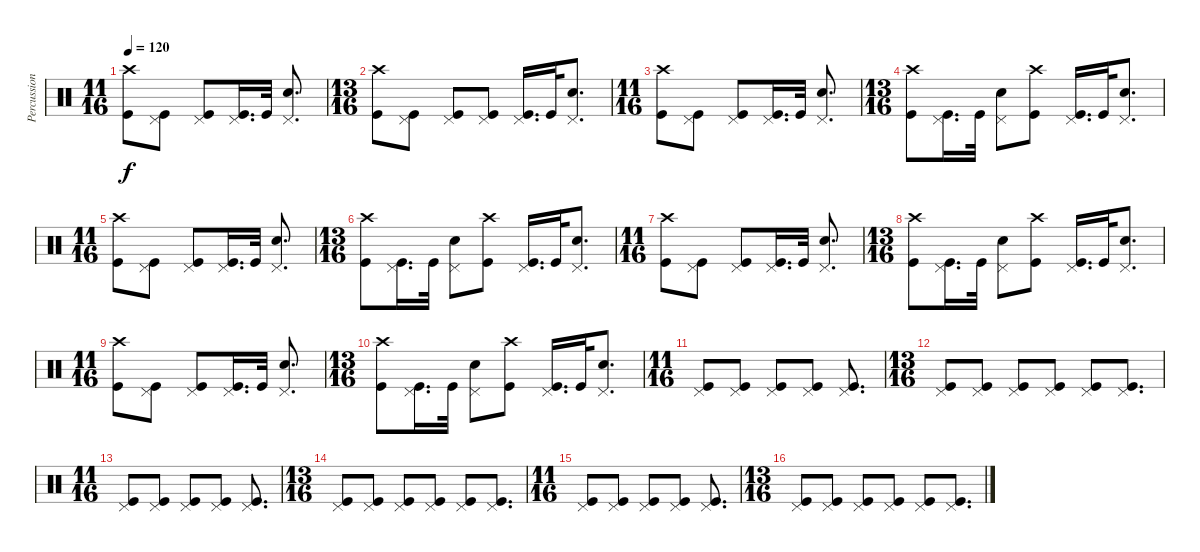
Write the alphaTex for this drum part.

\track ("Percussion" "Percussion") {instrument percussion}
\staff {score}
\articulation defaults
\ts (11 16)
\tempo 120
\clef neutral
\ks c
("Crash high (hit)" "Kick (hit)").8{dy f} ("Pedal Hi-Hat (hit)" "Kick (hit)").8 ("Pedal Hi-Hat (hit)" "Kick (hit)").8 ("Pedal Hi-Hat (hit)" "Kick (hit)").16{d} "Kick (hit)".32 ("Pedal Hi-Hat (hit)" "Snare (hit) 2").8{d} |
\ts (13 16)
("Crash high (hit)" "Kick (hit)").8 ("Pedal Hi-Hat (hit)" "Kick (hit)").8 ("Pedal Hi-Hat (hit)" "Kick (hit)").8 ("Pedal Hi-Hat (hit)" "Kick (hit)").8 ("Pedal Hi-Hat (hit)" "Kick (hit)").16{d} "Kick (hit)".32 ("Pedal Hi-Hat (hit)" "Snare (hit) 2").8{d} |
\ts (11 16)
("Crash high (hit)" "Kick (hit)").8 ("Pedal Hi-Hat (hit)" "Kick (hit)").8 ("Pedal Hi-Hat (hit)" "Kick (hit)").8 ("Pedal Hi-Hat (hit)" "Kick (hit)").16{d} "Kick (hit)".32 ("Pedal Hi-Hat (hit)" "Snare (hit) 2").8{d} |
\ts (13 16)
("Crash high (hit)" "Kick (hit)").8 ("Pedal Hi-Hat (hit)" "Kick (hit)").16{d} "Kick (hit)".32 ("Pedal Hi-Hat (hit)" "Snare (hit) 2").8 ("Crash high (hit)" "Kick (hit)").8 ("Pedal Hi-Hat (hit)" "Kick (hit)").16{d} "Kick (hit)".32 ("Pedal Hi-Hat (hit)" "Snare (hit) 2").8{d} |
\ts (11 16)
("Crash high (hit)" "Kick (hit)").8 ("Pedal Hi-Hat (hit)" "Kick (hit)").8 ("Pedal Hi-Hat (hit)" "Kick (hit)").8 ("Pedal Hi-Hat (hit)" "Kick (hit)").16{d} "Kick (hit)".32 ("Pedal Hi-Hat (hit)" "Snare (hit) 2").8{d} |
\ts (13 16)
("Crash high (hit)" "Kick (hit)").8 ("Pedal Hi-Hat (hit)" "Kick (hit)").16{d} "Kick (hit)".32 ("Pedal Hi-Hat (hit)" "Snare (hit) 2").8 ("Crash high (hit)" "Kick (hit)").8 ("Pedal Hi-Hat (hit)" "Kick (hit)").16{d} "Kick (hit)".32 ("Pedal Hi-Hat (hit)" "Snare (hit) 2").8{d} |
\ts (11 16)
("Crash high (hit)" "Kick (hit)").8 ("Pedal Hi-Hat (hit)" "Kick (hit)").8 ("Pedal Hi-Hat (hit)" "Kick (hit)").8 ("Pedal Hi-Hat (hit)" "Kick (hit)").16{d} "Kick (hit)".32 ("Pedal Hi-Hat (hit)" "Snare (hit) 2").8{d} |
\ts (13 16)
("Crash high (hit)" "Kick (hit)").8 ("Pedal Hi-Hat (hit)" "Kick (hit)").16{d} "Kick (hit)".32 ("Pedal Hi-Hat (hit)" "Snare (hit) 2").8 ("Crash high (hit)" "Kick (hit)").8 ("Pedal Hi-Hat (hit)" "Kick (hit)").16{d} "Kick (hit)".32 ("Pedal Hi-Hat (hit)" "Snare (hit) 2").8{d} |
\ts (11 16)
("Crash high (hit)" "Kick (hit)").8 ("Pedal Hi-Hat (hit)" "Kick (hit)").8 ("Pedal Hi-Hat (hit)" "Kick (hit)").8 ("Pedal Hi-Hat (hit)" "Kick (hit)").16{d} "Kick (hit)".32 ("Pedal Hi-Hat (hit)" "Snare (hit) 2").8{d} |
\ts (13 16)
("Crash high (hit)" "Kick (hit)").8 ("Pedal Hi-Hat (hit)" "Kick (hit)").16{d} "Kick (hit)".32 ("Pedal Hi-Hat (hit)" "Snare (hit) 2").8 ("Crash high (hit)" "Kick (hit)").8 ("Pedal Hi-Hat (hit)" "Kick (hit)").16{d} "Kick (hit)".32 ("Pedal Hi-Hat (hit)" "Snare (hit) 2").8{d} |
\ts (11 16)
("Pedal Hi-Hat (hit)" "Kick (hit)").8 ("Pedal Hi-Hat (hit)" "Kick (hit)").8 ("Pedal Hi-Hat (hit)" "Kick (hit)").8 ("Pedal Hi-Hat (hit)" "Kick (hit)").8 ("Pedal Hi-Hat (hit)" "Kick (hit)").8{d} |
\ts (13 16)
("Pedal Hi-Hat (hit)" "Kick (hit)").8 ("Pedal Hi-Hat (hit)" "Kick (hit)").8 ("Pedal Hi-Hat (hit)" "Kick (hit)").8 ("Pedal Hi-Hat (hit)" "Kick (hit)").8 ("Pedal Hi-Hat (hit)" "Kick (hit)").8 ("Pedal Hi-Hat (hit)" "Kick (hit)").8{d} |
\ts (11 16)
("Pedal Hi-Hat (hit)" "Kick (hit)").8 ("Pedal Hi-Hat (hit)" "Kick (hit)").8 ("Pedal Hi-Hat (hit)" "Kick (hit)").8 ("Pedal Hi-Hat (hit)" "Kick (hit)").8 ("Pedal Hi-Hat (hit)" "Kick (hit)").8{d} |
\ts (13 16)
("Pedal Hi-Hat (hit)" "Kick (hit)").8 ("Pedal Hi-Hat (hit)" "Kick (hit)").8 ("Pedal Hi-Hat (hit)" "Kick (hit)").8 ("Pedal Hi-Hat (hit)" "Kick (hit)").8 ("Pedal Hi-Hat (hit)" "Kick (hit)").8 ("Pedal Hi-Hat (hit)" "Kick (hit)").8{d} |
\ts (11 16)
("Pedal Hi-Hat (hit)" "Kick (hit)").8 ("Pedal Hi-Hat (hit)" "Kick (hit)").8 ("Pedal Hi-Hat (hit)" "Kick (hit)").8 ("Pedal Hi-Hat (hit)" "Kick (hit)").8 ("Pedal Hi-Hat (hit)" "Kick (hit)").8{d} |
\ts (13 16)
("Pedal Hi-Hat (hit)" "Kick (hit)").8 ("Pedal Hi-Hat (hit)" "Kick (hit)").8 ("Pedal Hi-Hat (hit)" "Kick (hit)").8 ("Pedal Hi-Hat (hit)" "Kick (hit)").8 ("Pedal Hi-Hat (hit)" "Kick (hit)").8 ("Pedal Hi-Hat (hit)" "Kick (hit)").8{d}
